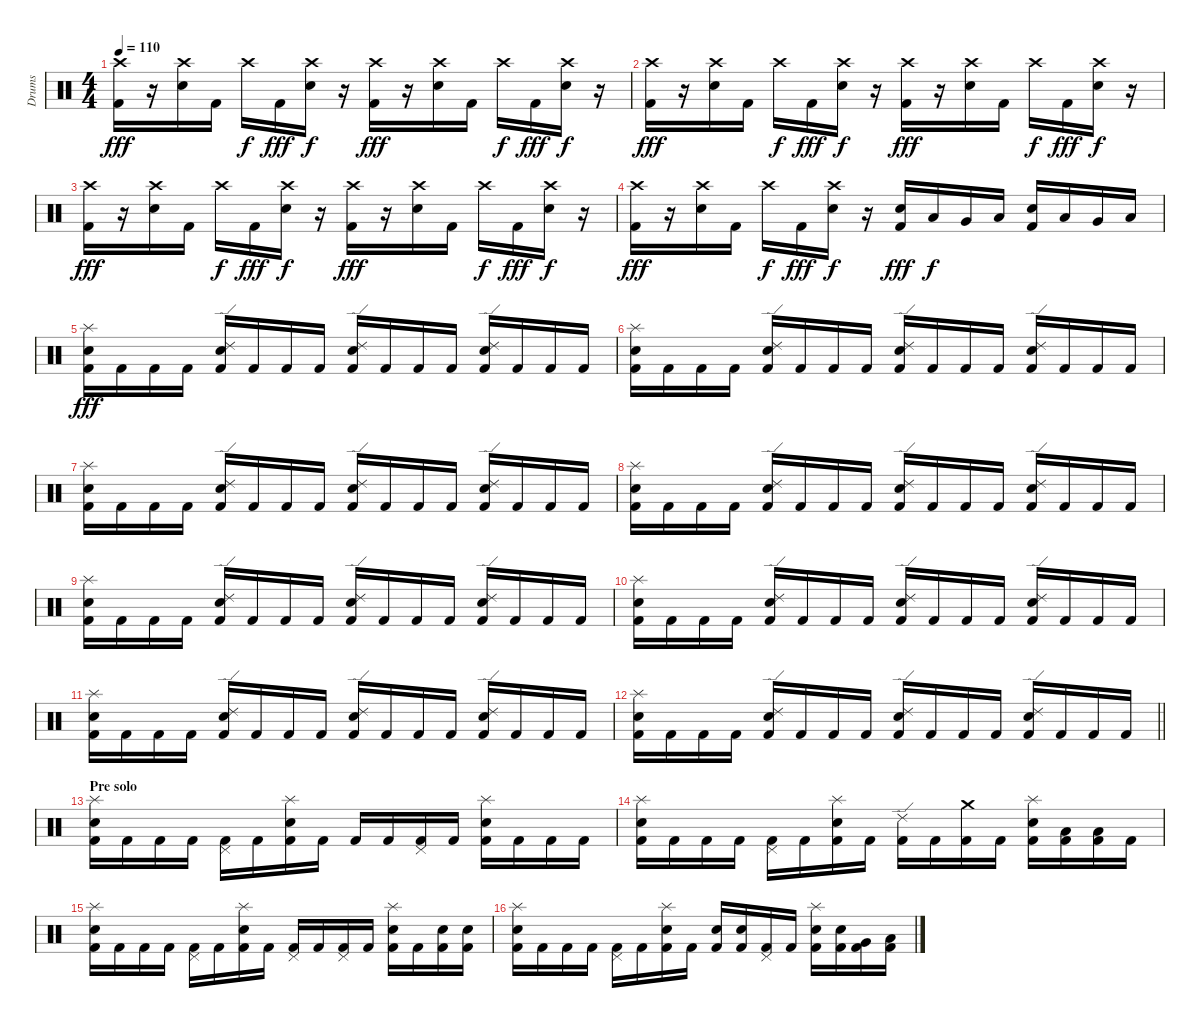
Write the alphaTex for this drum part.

\track ("Drums" "Drums") {instrument percussion}
\staff {score}
\articulation defaults
\ts (4 4)
\tempo 110
\clef neutral
\ks c
("Crash high (hit)" "Kick (hit) 2").16{dy fff} r.16 ("Crash high (hit)" "Electric Snare (hit)").16 "Kick (hit) 2".16 "Crash high (hit)".16{dy f} "Kick (hit) 2".16{dy fff} ("Crash high (hit)" "Electric Snare (hit)").16{dy f} r.16 ("Crash high (hit)" "Kick (hit) 2").16{dy fff} r.16 ("Crash high (hit)" "Electric Snare (hit)").16 "Kick (hit) 2".16 "Crash high (hit)".16{dy f} "Kick (hit) 2".16{dy fff} ("Crash high (hit)" "Electric Snare (hit)").16{dy f} r.16 |
("Crash high (hit)" "Kick (hit) 2").16{dy fff} r.16 ("Crash high (hit)" "Electric Snare (hit)").16 "Kick (hit) 2".16 "Crash high (hit)".16{dy f} "Kick (hit) 2".16{dy fff} ("Crash high (hit)" "Electric Snare (hit)").16{dy f} r.16 ("Crash high (hit)" "Kick (hit) 2").16{dy fff} r.16 ("Crash high (hit)" "Electric Snare (hit)").16 "Kick (hit) 2".16 "Crash high (hit)".16{dy f} "Kick (hit) 2".16{dy fff} ("Crash high (hit)" "Electric Snare (hit)").16{dy f} r.16 |
("Crash high (hit)" "Kick (hit) 2").16{dy fff} r.16 ("Crash high (hit)" "Electric Snare (hit)").16 "Kick (hit) 2".16 "Crash high (hit)".16{dy f} "Kick (hit) 2".16{dy fff} ("Crash high (hit)" "Electric Snare (hit)").16{dy f} r.16 ("Crash high (hit)" "Kick (hit) 2").16{dy fff} r.16 ("Crash high (hit)" "Electric Snare (hit)").16 "Kick (hit) 2".16 "Crash high (hit)".16{dy f} "Kick (hit) 2".16{dy fff} ("Crash high (hit)" "Electric Snare (hit)").16{dy f} r.16 |
("Crash high (hit)" "Kick (hit) 2").16{dy fff} r.16 ("Crash high (hit)" "Electric Snare (hit)").16 "Kick (hit) 2".16 "Crash high (hit)".16{dy f} "Kick (hit) 2".16{dy fff} ("Crash high (hit)" "Electric Snare (hit)").16{dy f} r.16 ("Electric Snare (hit)" "Kick (hit) 2").16{dy fff} "Low Tom (hit)".16{dy f} "Very Low Tom (hit)".16 "Low Floor Tom (hit)".16 ("Electric Snare (hit)" "Kick (hit) 2").16 "Low Tom (hit)".16 "Very Low Tom (hit)".16 "Low Floor Tom (hit)".16 |
("Splash (hit)" "Electric Snare (hit)" "Kick (hit) 2").16{dy fff} "Kick (hit) 2".16 "Kick (hit) 2".16 "Kick (hit) 2".16 ("Ride (edge) 2" "Electric Snare (hit)" "Kick (hit) 2").16 "Kick (hit) 2".16 "Kick (hit) 2".16 "Kick (hit) 2".16 ("Ride (edge) 2" "Electric Snare (hit)" "Kick (hit) 2").16 "Kick (hit) 2".16 "Kick (hit) 2".16 "Kick (hit) 2".16 ("Ride (edge) 2" "Electric Snare (hit)" "Kick (hit) 2").16 "Kick (hit) 2".16 "Kick (hit) 2".16 "Kick (hit) 2".16 |
("Splash (hit)" "Electric Snare (hit)" "Kick (hit) 2").16 "Kick (hit) 2".16 "Kick (hit) 2".16 "Kick (hit) 2".16 ("Ride (edge) 2" "Electric Snare (hit)" "Kick (hit) 2").16 "Kick (hit) 2".16 "Kick (hit) 2".16 "Kick (hit) 2".16 ("Ride (edge) 2" "Electric Snare (hit)" "Kick (hit) 2").16 "Kick (hit) 2".16 "Kick (hit) 2".16 "Kick (hit) 2".16 ("Ride (edge) 2" "Electric Snare (hit)" "Kick (hit) 2").16 "Kick (hit) 2".16 "Kick (hit) 2".16 "Kick (hit) 2".16 |
("Splash (hit)" "Electric Snare (hit)" "Kick (hit) 2").16 "Kick (hit) 2".16 "Kick (hit) 2".16 "Kick (hit) 2".16 ("Ride (edge) 2" "Electric Snare (hit)" "Kick (hit) 2").16 "Kick (hit) 2".16 "Kick (hit) 2".16 "Kick (hit) 2".16 ("Ride (edge) 2" "Electric Snare (hit)" "Kick (hit) 2").16 "Kick (hit) 2".16 "Kick (hit) 2".16 "Kick (hit) 2".16 ("Ride (edge) 2" "Electric Snare (hit)" "Kick (hit) 2").16 "Kick (hit) 2".16 "Kick (hit) 2".16 "Kick (hit) 2".16 |
("Splash (hit)" "Electric Snare (hit)" "Kick (hit) 2").16 "Kick (hit) 2".16 "Kick (hit) 2".16 "Kick (hit) 2".16 ("Ride (edge) 2" "Electric Snare (hit)" "Kick (hit) 2").16 "Kick (hit) 2".16 "Kick (hit) 2".16 "Kick (hit) 2".16 ("Ride (edge) 2" "Electric Snare (hit)" "Kick (hit) 2").16 "Kick (hit) 2".16 "Kick (hit) 2".16 "Kick (hit) 2".16 ("Ride (edge) 2" "Electric Snare (hit)" "Kick (hit) 2").16 "Kick (hit) 2".16 "Kick (hit) 2".16 "Kick (hit) 2".16 |
("Splash (hit)" "Electric Snare (hit)" "Kick (hit) 2").16 "Kick (hit) 2".16 "Kick (hit) 2".16 "Kick (hit) 2".16 ("Ride (edge) 2" "Electric Snare (hit)" "Kick (hit) 2").16 "Kick (hit) 2".16 "Kick (hit) 2".16 "Kick (hit) 2".16 ("Ride (edge) 2" "Electric Snare (hit)" "Kick (hit) 2").16 "Kick (hit) 2".16 "Kick (hit) 2".16 "Kick (hit) 2".16 ("Ride (edge) 2" "Electric Snare (hit)" "Kick (hit) 2").16 "Kick (hit) 2".16 "Kick (hit) 2".16 "Kick (hit) 2".16 |
("Splash (hit)" "Electric Snare (hit)" "Kick (hit) 2").16 "Kick (hit) 2".16 "Kick (hit) 2".16 "Kick (hit) 2".16 ("Ride (edge) 2" "Electric Snare (hit)" "Kick (hit) 2").16 "Kick (hit) 2".16 "Kick (hit) 2".16 "Kick (hit) 2".16 ("Ride (edge) 2" "Electric Snare (hit)" "Kick (hit) 2").16 "Kick (hit) 2".16 "Kick (hit) 2".16 "Kick (hit) 2".16 ("Ride (edge) 2" "Electric Snare (hit)" "Kick (hit) 2").16 "Kick (hit) 2".16 "Kick (hit) 2".16 "Kick (hit) 2".16 |
("Splash (hit)" "Electric Snare (hit)" "Kick (hit) 2").16 "Kick (hit) 2".16 "Kick (hit) 2".16 "Kick (hit) 2".16 ("Ride (edge) 2" "Electric Snare (hit)" "Kick (hit) 2").16 "Kick (hit) 2".16 "Kick (hit) 2".16 "Kick (hit) 2".16 ("Ride (edge) 2" "Electric Snare (hit)" "Kick (hit) 2").16 "Kick (hit) 2".16 "Kick (hit) 2".16 "Kick (hit) 2".16 ("Ride (edge) 2" "Electric Snare (hit)" "Kick (hit) 2").16 "Kick (hit) 2".16 "Kick (hit) 2".16 "Kick (hit) 2".16 |
\barLineRight lightlight
("Splash (hit)" "Electric Snare (hit)" "Kick (hit) 2").16 "Kick (hit) 2".16 "Kick (hit) 2".16 "Kick (hit) 2".16 ("Ride (edge) 2" "Electric Snare (hit)" "Kick (hit) 2").16 "Kick (hit) 2".16 "Kick (hit) 2".16 "Kick (hit) 2".16 ("Ride (edge) 2" "Electric Snare (hit)" "Kick (hit) 2").16 "Kick (hit) 2".16 "Kick (hit) 2".16 "Kick (hit) 2".16 ("Ride (edge) 2" "Electric Snare (hit)" "Kick (hit) 2").16 "Kick (hit) 2".16 "Kick (hit) 2".16 "Kick (hit) 2".16 |
\section ("" "Pre solo")
("Splash (hit)" "Electric Snare (hit)" "Kick (hit) 2").16 "Kick (hit) 2".16 "Kick (hit) 2".16 "Kick (hit) 2".16 ("Pedal Hi-Hat (hit)" "Kick (hit) 2").16 "Kick (hit) 2".16 ("Splash (hit)" "Electric Snare (hit)" "Kick (hit) 2").16 "Kick (hit) 2".16 "Kick (hit) 2".16 "Kick (hit) 2".16 ("Pedal Hi-Hat (hit)" "Kick (hit) 2").16 "Kick (hit) 2".16 ("Splash (hit)" "Electric Snare (hit)" "Kick (hit) 2").16 "Kick (hit) 2".16 "Kick (hit) 2".16 "Kick (hit) 2".16 |
("Splash (hit)" "Electric Snare (hit)" "Kick (hit) 2").16 "Kick (hit) 2".16 "Kick (hit) 2".16 "Kick (hit) 2".16 ("Pedal Hi-Hat (hit)" "Kick (hit) 2").16 "Kick (hit) 2".16 ("Splash (hit)" "Electric Snare (hit)" "Kick (hit) 2").16 "Kick (hit) 2".16 ("Ride (edge) 2" "Kick (hit) 2").16 "Kick (hit) 2".16 ("Crash medium (hit)" "Kick (hit) 2").16 "Kick (hit) 2".16 ("Splash (hit)" "Electric Snare (hit)" "Kick (hit) 2").16 ("Low Floor Tom (hit)" "Kick (hit) 2").16 ("Low Tom (hit)" "Kick (hit) 2").16 "Kick (hit) 2".16 |
("Splash (hit)" "Electric Snare (hit)" "Kick (hit) 2").16 "Kick (hit) 2".16 "Kick (hit) 2".16 "Kick (hit) 2".16 ("Pedal Hi-Hat (hit)" "Kick (hit) 2").16 "Kick (hit) 2".16 ("Splash (hit)" "Electric Snare (hit)" "Kick (hit) 2").16 "Kick (hit) 2".16 ("Pedal Hi-Hat (hit)" "Kick (hit) 2").16 "Kick (hit) 2".16 ("Pedal Hi-Hat (hit)" "Kick (hit) 2").16 "Kick (hit) 2".16 ("Splash (hit)" "Electric Snare (hit)" "Kick (hit) 2").16 "Kick (hit) 2".16 ("Electric Snare (hit)" "Kick (hit) 2").16 ("Electric Snare (hit)" "Kick (hit) 2").16 |
("Splash (hit)" "Electric Snare (hit)" "Kick (hit) 2").16 "Kick (hit) 2".16 "Kick (hit) 2".16 "Kick (hit) 2".16 ("Pedal Hi-Hat (hit)" "Kick (hit) 2").16 "Kick (hit) 2".16 ("Splash (hit)" "Electric Snare (hit)" "Kick (hit) 2").16 "Kick (hit) 2".16 ("Electric Snare (hit)" "Kick (hit) 2").16 ("Electric Snare (hit)" "Kick (hit) 2").16 ("Pedal Hi-Hat (hit)" "Kick (hit) 2").16 "Kick (hit) 2".16 ("Splash (hit)" "Electric Snare (hit)" "Kick (hit) 2").16 ("Electric Snare (hit)" "Kick (hit) 2").16 ("Very Low Tom (hit)" "Kick (hit) 2").16 ("Low Floor Tom (hit)" "Kick (hit) 2").16
